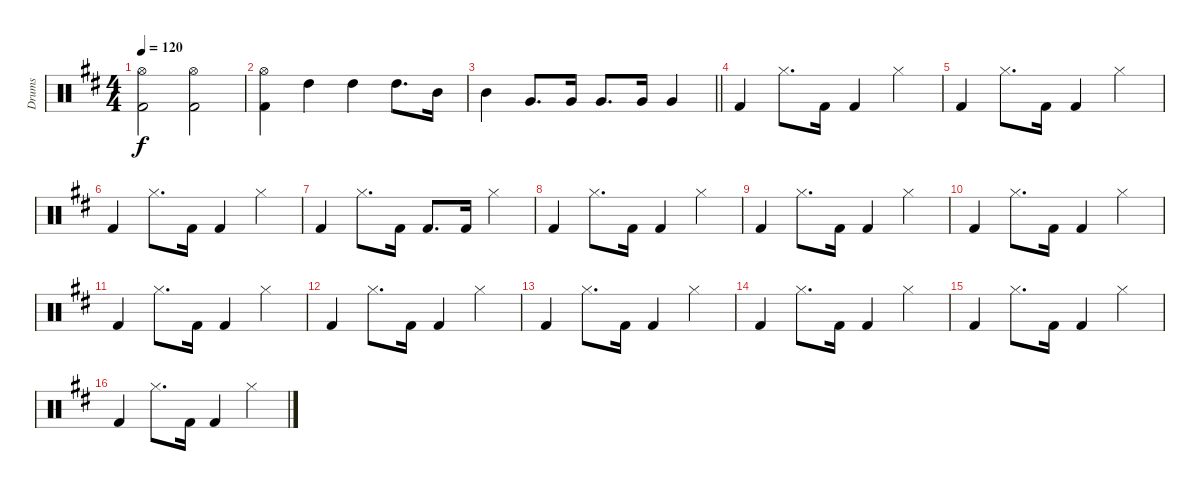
\track ("Drums" "Drums") {instrument percussion}
\staff {score}
\articulation defaults
\ts (4 4)
\tempo 120
\clef neutral
\ks d
("Hi-Hat (open)" "Kick (hit) 2").2{dy f} ("Hi-Hat (open)" "Kick (hit) 2").2 |
("Hi-Hat (open)" "Kick (hit) 2").4 "High Tom (hit)".4 "High Tom (hit)".4 "High Tom (hit)".8{d} "Mid Tom (hit)".16 |
\barLineRight lightlight "Mid Tom (hit)".4 "Very Low Tom (hit)".8{d} "Very Low Tom (hit)".16 "Very Low Tom (hit)".8{d} "Very Low Tom (hit)".16 "Very Low Tom (hit)".4
|
"Kick (hit) 2".4 "Hi-Hat (closed)".8{d} "Kick (hit) 2".16 "Kick (hit) 2".4 "Hi-Hat (closed)".4 |
"Kick (hit) 2".4 "Hi-Hat (closed)".8{d} "Kick (hit) 2".16 "Kick (hit) 2".4 "Hi-Hat (closed)".4 |
"Kick (hit) 2".4 "Hi-Hat (closed)".8{d} "Kick (hit) 2".16 "Kick (hit) 2".4 "Hi-Hat (closed)".4 |
"Kick (hit) 2".4 "Hi-Hat (closed)".8{d} "Kick (hit) 2".16 "Kick (hit) 2".8{d} "Kick (hit) 2".16 "Hi-Hat (closed)".4 |
"Kick (hit) 2".4 "Hi-Hat (closed)".8{d} "Kick (hit) 2".16 "Kick (hit) 2".4 "Hi-Hat (closed)".4 |
"Kick (hit) 2".4 "Hi-Hat (closed)".8{d} "Kick (hit) 2".16 "Kick (hit) 2".4 "Hi-Hat (closed)".4 |
"Kick (hit) 2".4 "Hi-Hat (closed)".8{d} "Kick (hit) 2".16 "Kick (hit) 2".4 "Hi-Hat (closed)".4 |
"Kick (hit) 2".4 "Hi-Hat (closed)".8{d} "Kick (hit) 2".16 "Kick (hit) 2".4 "Hi-Hat (closed)".4 |
"Kick (hit) 2".4 "Hi-Hat (closed)".8{d} "Kick (hit) 2".16 "Kick (hit) 2".4 "Hi-Hat (closed)".4 |
"Kick (hit) 2".4 "Hi-Hat (closed)".8{d} "Kick (hit) 2".16 "Kick (hit) 2".4 "Hi-Hat (closed)".4 |
"Kick (hit) 2".4 "Hi-Hat (closed)".8{d} "Kick (hit) 2".16 "Kick (hit) 2".4 "Hi-Hat (closed)".4 |
"Kick (hit) 2".4 "Hi-Hat (closed)".8{d} "Kick (hit) 2".16 "Kick (hit) 2".4 "Hi-Hat (closed)".4 |
"Kick (hit) 2".4 "Hi-Hat (closed)".8{d} "Kick (hit) 2".16 "Kick (hit) 2".4 "Hi-Hat (closed)".4
